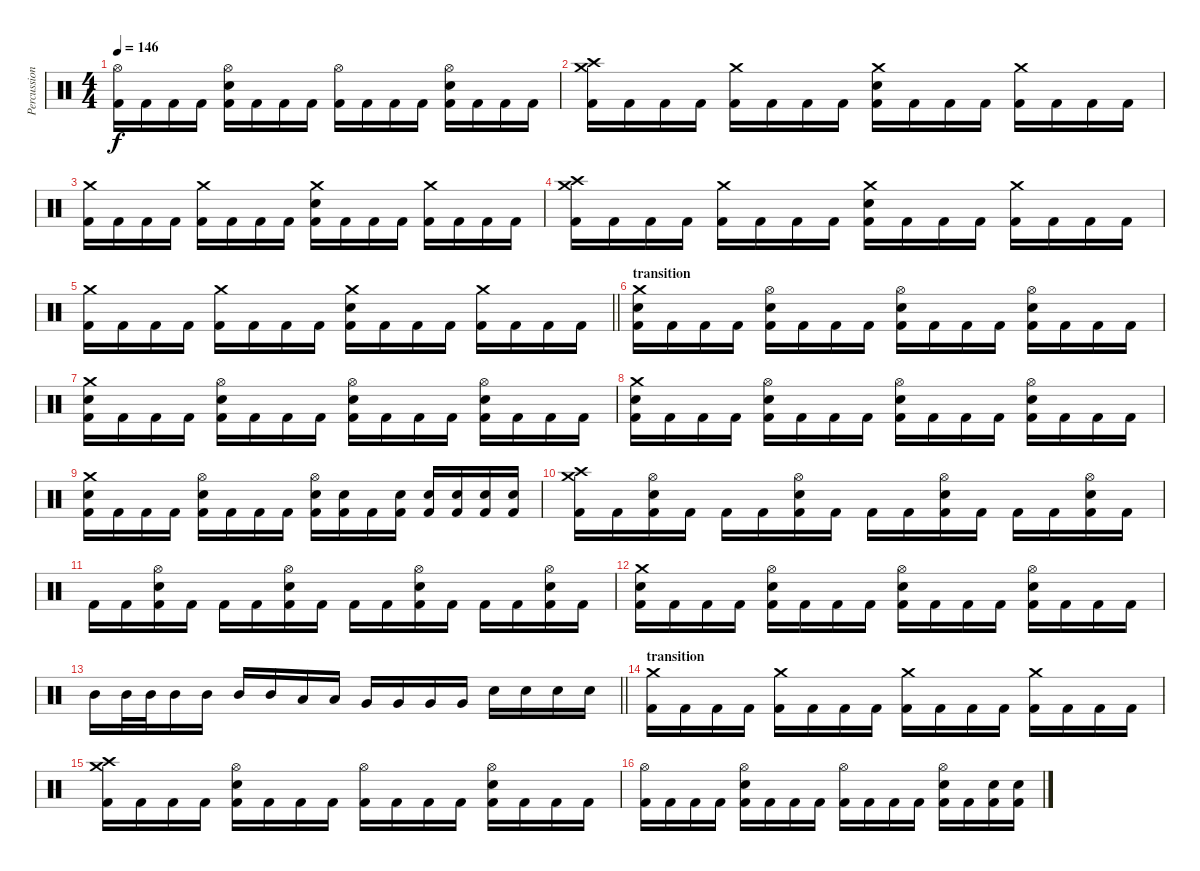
\track ("Percussion" "Percussion") {instrument percussion}
\staff {score}
\articulation defaults
\ts (4 4)
\tempo 146
\clef neutral
\ks c
("Hi-Hat (open)" "Kick (hit) 2").16{dy f} "Kick (hit) 2".16 "Kick (hit) 2".16 "Kick (hit) 2".16 ("Hi-Hat (open)" "Snare (hit) 2" "Kick (hit) 2").16 "Kick (hit) 2".16 "Kick (hit) 2".16 "Kick (hit) 2".16 ("Hi-Hat (open)" "Kick (hit) 2").16 "Kick (hit) 2".16 "Kick (hit) 2".16 "Kick (hit) 2".16 ("Hi-Hat (open)" "Snare (hit) 2" "Kick (hit) 2").16 "Kick (hit) 2".16 "Kick (hit) 2".16 "Kick (hit) 2".16 |
("Crash high (hit)" "Crash medium (hit)" "Kick (hit) 2").16 "Kick (hit) 2".16 "Kick (hit) 2".16 "Kick (hit) 2".16 ("Crash medium (hit)" "Kick (hit) 2").16 "Kick (hit) 2".16 "Kick (hit) 2".16 "Kick (hit) 2".16 ("Crash medium (hit)" "Snare (hit) 2" "Kick (hit) 2").16 "Kick (hit) 2".16 "Kick (hit) 2".16 "Kick (hit) 2".16 ("Crash medium (hit)" "Kick (hit) 2").16 "Kick (hit) 2".16 "Kick (hit) 2".16 "Kick (hit) 2".16 |
("Crash medium (hit)" "Kick (hit) 2").16 "Kick (hit) 2".16 "Kick (hit) 2".16 "Kick (hit) 2".16 ("Crash medium (hit)" "Kick (hit) 2").16 "Kick (hit) 2".16 "Kick (hit) 2".16 "Kick (hit) 2".16 ("Crash medium (hit)" "Snare (hit) 2" "Kick (hit) 2").16 "Kick (hit) 2".16 "Kick (hit) 2".16 "Kick (hit) 2".16 ("Crash medium (hit)" "Kick (hit) 2").16 "Kick (hit) 2".16 "Kick (hit) 2".16 "Kick (hit) 2".16 |
("Crash high (hit)" "Crash medium (hit)" "Kick (hit) 2").16 "Kick (hit) 2".16 "Kick (hit) 2".16 "Kick (hit) 2".16 ("Crash medium (hit)" "Kick (hit) 2").16 "Kick (hit) 2".16 "Kick (hit) 2".16 "Kick (hit) 2".16 ("Crash medium (hit)" "Snare (hit) 2" "Kick (hit) 2").16 "Kick (hit) 2".16 "Kick (hit) 2".16 "Kick (hit) 2".16 ("Crash medium (hit)" "Kick (hit) 2").16 "Kick (hit) 2".16 "Kick (hit) 2".16 "Kick (hit) 2".16 |
\barLineRight lightlight
("Crash medium (hit)" "Kick (hit) 2").16 "Kick (hit) 2".16 "Kick (hit) 2".16 "Kick (hit) 2".16 ("Crash medium (hit)" "Kick (hit) 2").16 "Kick (hit) 2".16 "Kick (hit) 2".16 "Kick (hit) 2".16 ("Crash medium (hit)" "Snare (hit) 2" "Kick (hit) 2").16 "Kick (hit) 2".16 "Kick (hit) 2".16 "Kick (hit) 2".16 ("Crash medium (hit)" "Kick (hit) 2").16 "Kick (hit) 2".16 "Kick (hit) 2".16 "Kick (hit) 2".16 |
\section ("" "transition")
("Crash medium (hit)" "Snare (hit) 2" "Kick (hit) 2").16 "Kick (hit) 2".16 "Kick (hit) 2".16 "Kick (hit) 2".16 ("Hi-Hat (open)" "Snare (hit) 2" "Kick (hit) 2").16 "Kick (hit) 2".16 "Kick (hit) 2".16 "Kick (hit) 2".16 ("Hi-Hat (open)" "Snare (hit) 2" "Kick (hit) 2").16 "Kick (hit) 2".16 "Kick (hit) 2".16 "Kick (hit) 2".16 ("Hi-Hat (open)" "Snare (hit) 2" "Kick (hit) 2").16 "Kick (hit) 2".16 "Kick (hit) 2".16 "Kick (hit) 2".16 |
("Crash medium (hit)" "Snare (hit) 2" "Kick (hit) 2").16 "Kick (hit) 2".16 "Kick (hit) 2".16 "Kick (hit) 2".16 ("Hi-Hat (open)" "Snare (hit) 2" "Kick (hit) 2").16 "Kick (hit) 2".16 "Kick (hit) 2".16 "Kick (hit) 2".16 ("Hi-Hat (open)" "Snare (hit) 2" "Kick (hit) 2").16 "Kick (hit) 2".16 "Kick (hit) 2".16 "Kick (hit) 2".16 ("Hi-Hat (open)" "Snare (hit) 2" "Kick (hit) 2").16 "Kick (hit) 2".16 "Kick (hit) 2".16 "Kick (hit) 2".16 |
("Crash medium (hit)" "Snare (hit) 2" "Kick (hit) 2").16 "Kick (hit) 2".16 "Kick (hit) 2".16 "Kick (hit) 2".16 ("Hi-Hat (open)" "Snare (hit) 2" "Kick (hit) 2").16 "Kick (hit) 2".16 "Kick (hit) 2".16 "Kick (hit) 2".16 ("Hi-Hat (open)" "Snare (hit) 2" "Kick (hit) 2").16 "Kick (hit) 2".16 "Kick (hit) 2".16 "Kick (hit) 2".16 ("Hi-Hat (open)" "Snare (hit) 2" "Kick (hit) 2").16 "Kick (hit) 2".16 "Kick (hit) 2".16 "Kick (hit) 2".16 |
("Crash medium (hit)" "Snare (hit) 2" "Kick (hit) 2").16 "Kick (hit) 2".16 "Kick (hit) 2".16 "Kick (hit) 2".16 ("Hi-Hat (open)" "Snare (hit) 2" "Kick (hit) 2").16 "Kick (hit) 2".16 "Kick (hit) 2".16 "Kick (hit) 2".16 ("Hi-Hat (open)" "Snare (hit) 2" "Kick (hit) 2").16 ("Snare (hit) 2" "Kick (hit) 2").16 "Kick (hit) 2".16 ("Snare (hit) 2" "Kick (hit) 2").16 ("Snare (hit) 2" "Kick (hit) 2").16 ("Snare (hit) 2" "Kick (hit) 2").16 ("Snare (hit) 2" "Kick (hit) 2").16 ("Snare (hit) 2" "Kick (hit) 2").16 |
("Crash high (hit)" "Crash medium (hit)" "Kick (hit) 2").16 "Kick (hit) 2".16 ("Hi-Hat (open)" "Snare (hit) 2" "Kick (hit) 2").16 "Kick (hit) 2".16 "Kick (hit) 2".16 "Kick (hit) 2".16 ("Hi-Hat (open)" "Snare (hit) 2" "Kick (hit) 2").16 "Kick (hit) 2".16 "Kick (hit) 2".16 "Kick (hit) 2".16 ("Hi-Hat (open)" "Snare (hit) 2" "Kick (hit) 2").16 "Kick (hit) 2".16 "Kick (hit) 2".16 "Kick (hit) 2".16 ("Hi-Hat (open)" "Snare (hit) 2" "Kick (hit) 2").16 "Kick (hit) 2".16 |
"Kick (hit) 2".16 "Kick (hit) 2".16 ("Hi-Hat (open)" "Snare (hit) 2" "Kick (hit) 2").16 "Kick (hit) 2".16 "Kick (hit) 2".16 "Kick (hit) 2".16 ("Hi-Hat (open)" "Snare (hit) 2" "Kick (hit) 2").16 "Kick (hit) 2".16 "Kick (hit) 2".16 "Kick (hit) 2".16 ("Hi-Hat (open)" "Snare (hit) 2" "Kick (hit) 2").16 "Kick (hit) 2".16 "Kick (hit) 2".16 "Kick (hit) 2".16 ("Hi-Hat (open)" "Snare (hit) 2" "Kick (hit) 2").16 "Kick (hit) 2".16 |
("Crash medium (hit)" "Snare (hit) 2" "Kick (hit) 2").16 "Kick (hit) 2".16 "Kick (hit) 2".16 "Kick (hit) 2".16 ("Hi-Hat (open)" "Snare (hit) 2" "Kick (hit) 2").16 "Kick (hit) 2".16 "Kick (hit) 2".16 "Kick (hit) 2".16 ("Hi-Hat (open)" "Snare (hit) 2" "Kick (hit) 2").16 "Kick (hit) 2".16 "Kick (hit) 2".16 "Kick (hit) 2".16 ("Hi-Hat (open)" "Snare (hit) 2" "Kick (hit) 2").16 "Kick (hit) 2".16 "Kick (hit) 2".16 "Kick (hit) 2".16 |
\barLineRight lightlight "Mid Tom (hit)".16 "Mid Tom (hit)".32 "Mid Tom (hit)".32 "Mid Tom (hit)".16 "Mid Tom (hit)".16 "Mid Tom (hit)".16 "Mid Tom (hit)".16 "Low Tom (hit)".16 "Low Tom (hit)".16 "Very Low Tom (hit)".16 "Very Low Tom (hit)".16 "Very Low Tom (hit)".16 "Very Low Tom (hit)".16 "Snare (hit) 2".16 "Snare (hit) 2".16 "Snare (hit) 2".16 "Snare (hit) 2".16
|
\section ("" "transition")
("Crash medium (hit)" "Kick (hit) 2").16 "Kick (hit) 2".16 "Kick (hit) 2".16 "Kick (hit) 2".16 ("Crash medium (hit)" "Kick (hit) 2").16 "Kick (hit) 2".16 "Kick (hit) 2".16 "Kick (hit) 2".16 ("Crash medium (hit)" "Kick (hit) 2").16 "Kick (hit) 2".16 "Kick (hit) 2".16 "Kick (hit) 2".16 ("Crash medium (hit)" "Kick (hit) 2").16 "Kick (hit) 2".16 "Kick (hit) 2".16 "Kick (hit) 2".16 |
("Crash high (hit)" "Crash medium (hit)" "Kick (hit) 2").16 "Kick (hit) 2".16 "Kick (hit) 2".16 "Kick (hit) 2".16 ("Hi-Hat (open)" "Snare (hit) 2" "Kick (hit) 2").16 "Kick (hit) 2".16 "Kick (hit) 2".16 "Kick (hit) 2".16 ("Hi-Hat (open)" "Kick (hit) 2").16 "Kick (hit) 2".16 "Kick (hit) 2".16 "Kick (hit) 2".16 ("Hi-Hat (open)" "Snare (hit) 2" "Kick (hit) 2").16 "Kick (hit) 2".16 "Kick (hit) 2".16 "Kick (hit) 2".16 |
("Hi-Hat (open)" "Kick (hit) 2").16 "Kick (hit) 2".16 "Kick (hit) 2".16 "Kick (hit) 2".16 ("Hi-Hat (open)" "Snare (hit) 2" "Kick (hit) 2").16 "Kick (hit) 2".16 "Kick (hit) 2".16 "Kick (hit) 2".16 ("Hi-Hat (open)" "Kick (hit) 2").16 "Kick (hit) 2".16 "Kick (hit) 2".16 "Kick (hit) 2".16 ("Hi-Hat (open)" "Snare (hit) 2" "Kick (hit) 2").16 "Kick (hit) 2".16 ("Snare (hit) 2" "Kick (hit) 2").16 ("Snare (hit) 2" "Kick (hit) 2").16
